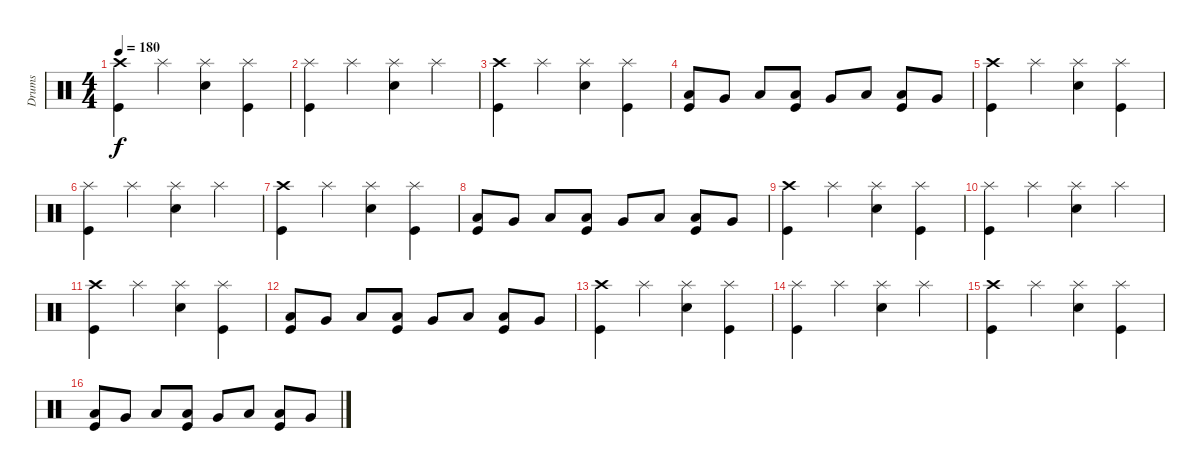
\track ("Drums" "Drums") {instrument percussion}
\staff {score}
\articulation defaults
\ts (4 4)
\tempo 180
\clef neutral
\ks c
("Crash high (hit)" "Kick (hit)").4{dy f} "Splash (hit)".4 ("Splash (hit)" "Snare (hit) 2").4 ("Splash (hit)" "Kick (hit)").4 |
("Splash (hit)" "Kick (hit)").4 "Splash (hit)".4 ("Splash (hit)" "Snare (hit) 2").4 "Splash (hit)".4 |
("Crash high (hit)" "Kick (hit)").4 "Splash (hit)".4 ("Splash (hit)" "Snare (hit) 2").4 ("Splash (hit)" "Kick (hit)").4 |
("Low Tom (hit)" "Kick (hit)").8 "Very Low Tom (hit)".8 "Low Floor Tom (hit)".8 ("Low Tom (hit)" "Kick (hit)").8 "Very Low Tom (hit)".8 "Low Floor Tom (hit)".8 ("Low Tom (hit)" "Kick (hit)").8 "Very Low Tom (hit)".8 |
("Crash high (hit)" "Kick (hit)").4 "Splash (hit)".4 ("Splash (hit)" "Snare (hit) 2").4 ("Splash (hit)" "Kick (hit)").4 |
("Splash (hit)" "Kick (hit)").4 "Splash (hit)".4 ("Splash (hit)" "Snare (hit) 2").4 "Splash (hit)".4 |
("Crash high (hit)" "Kick (hit)").4 "Splash (hit)".4 ("Splash (hit)" "Snare (hit) 2").4 ("Splash (hit)" "Kick (hit)").4 |
("Low Tom (hit)" "Kick (hit)").8 "Very Low Tom (hit)".8 "Low Floor Tom (hit)".8 ("Low Tom (hit)" "Kick (hit)").8 "Very Low Tom (hit)".8 "Low Floor Tom (hit)".8 ("Low Tom (hit)" "Kick (hit)").8 "Very Low Tom (hit)".8 |
("Crash high (hit)" "Kick (hit)").4 "Splash (hit)".4 ("Splash (hit)" "Snare (hit) 2").4 ("Splash (hit)" "Kick (hit)").4 |
("Splash (hit)" "Kick (hit)").4 "Splash (hit)".4 ("Splash (hit)" "Snare (hit) 2").4 "Splash (hit)".4 |
("Crash high (hit)" "Kick (hit)").4 "Splash (hit)".4 ("Splash (hit)" "Snare (hit) 2").4 ("Splash (hit)" "Kick (hit)").4 |
("Low Tom (hit)" "Kick (hit)").8 "Very Low Tom (hit)".8 "Low Floor Tom (hit)".8 ("Low Tom (hit)" "Kick (hit)").8 "Very Low Tom (hit)".8 "Low Floor Tom (hit)".8 ("Low Tom (hit)" "Kick (hit)").8 "Very Low Tom (hit)".8 |
("Crash high (hit)" "Kick (hit)").4 "Splash (hit)".4 ("Splash (hit)" "Snare (hit) 2").4 ("Splash (hit)" "Kick (hit)").4 |
("Splash (hit)" "Kick (hit)").4 "Splash (hit)".4 ("Splash (hit)" "Snare (hit) 2").4 "Splash (hit)".4 |
("Crash high (hit)" "Kick (hit)").4 "Splash (hit)".4 ("Splash (hit)" "Snare (hit) 2").4 ("Splash (hit)" "Kick (hit)").4 |
("Low Tom (hit)" "Kick (hit)").8 "Very Low Tom (hit)".8 "Low Floor Tom (hit)".8 ("Low Tom (hit)" "Kick (hit)").8 "Very Low Tom (hit)".8 "Low Floor Tom (hit)".8 ("Low Tom (hit)" "Kick (hit)").8 "Very Low Tom (hit)".8
